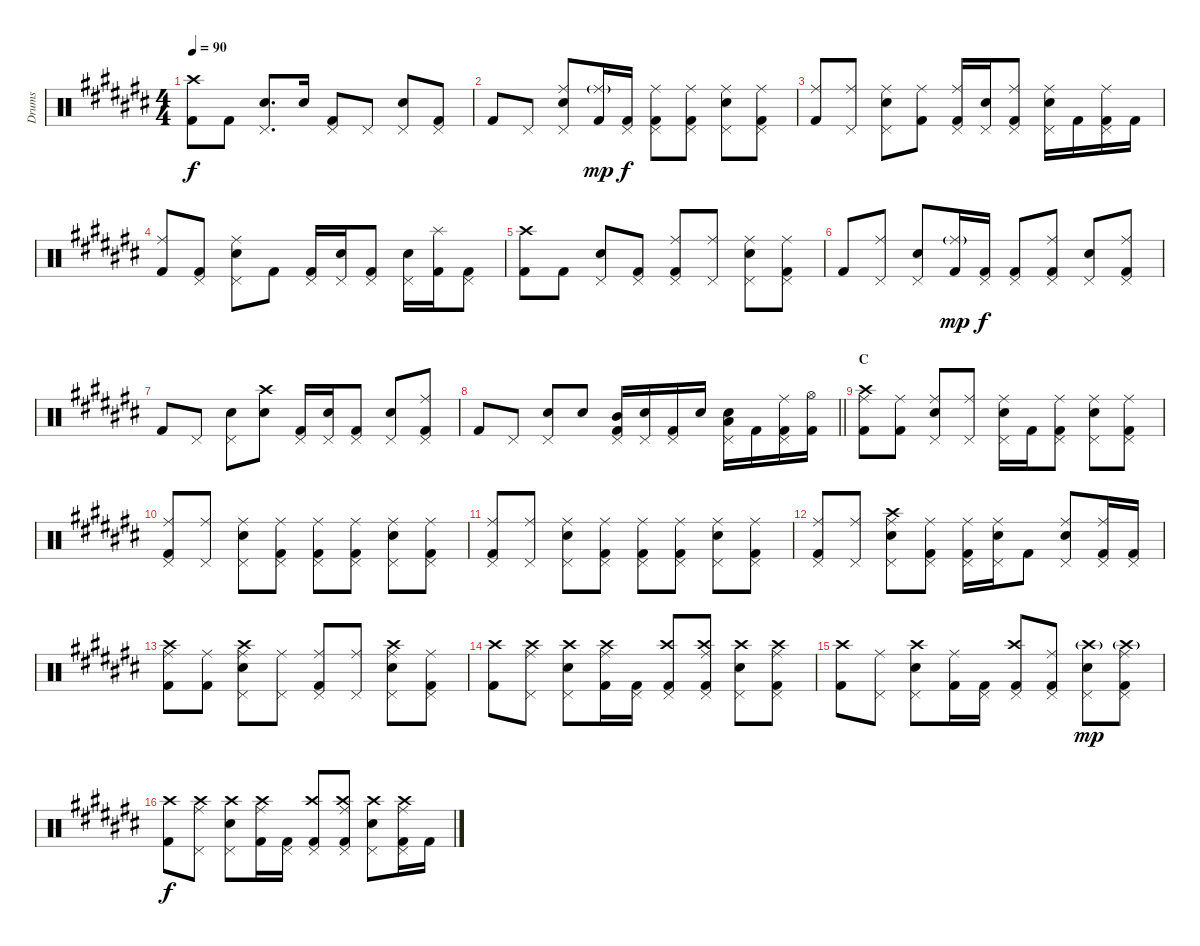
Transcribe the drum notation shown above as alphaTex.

\track ("Drums" "Drums") {instrument percussion}
\staff {score}
\articulation defaults
\ts (4 4)
\tempo 90
\clef neutral
\ks c#
("Kick (hit) 2" "Crash high (hit)").8{dy f} "Kick (hit) 2".8 ("Snare (hit) 2" "Pedal Hi-Hat (hit)").8{d} "Snare (hit) 2".16 ("Kick (hit) 2" "Pedal Hi-Hat (hit)").8 "Pedal Hi-Hat (hit)".8 ("Snare (hit) 2" "Pedal Hi-Hat (hit)").8 ("Kick (hit) 2" "Pedal Hi-Hat (hit)").8 |
"Kick (hit) 2".8 "Pedal Hi-Hat (hit)".8 ("Snare (hit) 2" "Pedal Hi-Hat (hit)" "Ride (middle)").8 ("Kick (hit) 2" "Ride (middle)"{g}).16{dy mp} ("Kick (hit) 2" "Pedal Hi-Hat (hit)").16{dy f} ("Kick (hit) 2" "Pedal Hi-Hat (hit)" "Ride (middle)").8 ("Kick (hit) 2" "Pedal Hi-Hat (hit)" "Ride (middle)").8 ("Snare (hit) 2" "Pedal Hi-Hat (hit)" "Ride (middle)").8 ("Kick (hit) 2" "Pedal Hi-Hat (hit)" "Ride (middle)").8 |
("Kick (hit) 2" "Ride (middle)").8 ("Pedal Hi-Hat (hit)" "Ride (middle)").8 ("Snare (hit) 2" "Pedal Hi-Hat (hit)" "Ride (middle)").8 ("Kick (hit) 2" "Ride (middle)").8 ("Kick (hit) 2" "Pedal Hi-Hat (hit)" "Ride (middle)").16 ("Snare (hit) 2" "Pedal Hi-Hat (hit)").16 ("Kick (hit) 2" "Pedal Hi-Hat (hit)" "Ride (middle)").8 ("Snare (hit) 2" "Pedal Hi-Hat (hit)" "Ride (middle)").16 "Kick (hit) 2".16 ("Kick (hit) 2" "Pedal Hi-Hat (hit)" "Ride (middle)").16 "Kick (hit) 2".16 |
("Kick (hit) 2" "Ride (middle)").8 ("Kick (hit) 2" "Pedal Hi-Hat (hit)").8 ("Snare (hit) 2" "Pedal Hi-Hat (hit)" "Ride (middle)").8 "Kick (hit) 2".8 ("Kick (hit) 2" "Pedal Hi-Hat (hit)").16 ("Snare (hit) 2" "Pedal Hi-Hat (hit)").16 ("Kick (hit) 2" "Pedal Hi-Hat (hit)").8 ("Snare (hit) 2" "Pedal Hi-Hat (hit)").16 ("Kick (hit) 2" "Splash (hit)").16 ("Kick (hit) 2" "Pedal Hi-Hat (hit)").8 |
("Kick (hit) 2" "Crash high (hit)").8 "Kick (hit) 2".8 ("Snare (hit) 2" "Pedal Hi-Hat (hit)").8 ("Kick (hit) 2" "Pedal Hi-Hat (hit)").8 ("Kick (hit) 2" "Pedal Hi-Hat (hit)" "Ride (middle)").8 ("Pedal Hi-Hat (hit)" "Ride (middle)").8 ("Snare (hit) 2" "Pedal Hi-Hat (hit)" "Ride (middle)").8 ("Kick (hit) 2" "Pedal Hi-Hat (hit)" "Ride (middle)").8 |
"Kick (hit) 2".8 ("Pedal Hi-Hat (hit)" "Ride (middle)").8 ("Snare (hit) 2" "Pedal Hi-Hat (hit)").8 ("Kick (hit) 2" "Ride (middle)"{g}).16{dy mp} ("Kick (hit) 2" "Pedal Hi-Hat (hit)").16{dy f} ("Kick (hit) 2" "Pedal Hi-Hat (hit)").8 ("Kick (hit) 2" "Pedal Hi-Hat (hit)" "Ride (middle)").8 ("Snare (hit) 2" "Pedal Hi-Hat (hit)").8 ("Kick (hit) 2" "Pedal Hi-Hat (hit)" "Ride (middle)").8 |
"Kick (hit) 2".8 "Pedal Hi-Hat (hit)".8 ("Snare (hit) 2" "Pedal Hi-Hat (hit)").8 ("Snare (hit) 2" "Crash high (hit)").8 ("Kick (hit) 2" "Pedal Hi-Hat (hit)").16 ("Snare (hit) 2" "Pedal Hi-Hat (hit)").16 ("Kick (hit) 2" "Pedal Hi-Hat (hit)").8 ("Snare (hit) 2" "Pedal Hi-Hat (hit)").8 ("Kick (hit) 2" "Pedal Hi-Hat (hit)" "Ride (middle)").8 |
\barLineRight lightlight "Kick (hit) 2".8 "Pedal Hi-Hat (hit)".8
("Snare (hit) 2" "Pedal Hi-Hat (hit)").8 "Snare (hit) 2".8 ("Kick (hit) 2" "Pedal Hi-Hat (hit)" "Mid Tom (hit)").16 ("Snare (hit) 2" "Pedal Hi-Hat (hit)").16 ("Kick (hit) 2" "Pedal Hi-Hat (hit)").16 "Snare (hit) 2".16 ("Snare (hit) 2" "Pedal Hi-Hat (hit)" "Low Tom (hit)").16 "Kick (hit) 2".16 ("Kick (hit) 2" "Pedal Hi-Hat (hit)" "Ride (middle)").16 ("Kick (hit) 2" "Hi-Hat (open)").16 |
\section ("" "C")
("Kick (hit) 2" "Crash high (hit)" "Ride (middle)").8 ("Kick (hit) 2" "Ride (middle)").8 ("Snare (hit) 2" "Pedal Hi-Hat (hit)" "Ride (middle)").8 ("Pedal Hi-Hat (hit)" "Ride (middle)").8 ("Snare (hit) 2" "Pedal Hi-Hat (hit)" "Ride (middle)").16 "Kick (hit) 2".16 ("Kick (hit) 2" "Pedal Hi-Hat (hit)" "Ride (middle)").8 ("Snare (hit) 2" "Pedal Hi-Hat (hit)" "Ride (middle)").8 ("Kick (hit) 2" "Pedal Hi-Hat (hit)" "Ride (middle)").8 |
("Kick (hit) 2" "Pedal Hi-Hat (hit)" "Ride (middle)").8 ("Pedal Hi-Hat (hit)" "Ride (middle)").8 ("Snare (hit) 2" "Pedal Hi-Hat (hit)" "Ride (middle)").8 ("Kick (hit) 2" "Pedal Hi-Hat (hit)" "Ride (middle)").8 ("Kick (hit) 2" "Pedal Hi-Hat (hit)" "Ride (middle)").8 ("Kick (hit) 2" "Pedal Hi-Hat (hit)" "Ride (middle)").8 ("Snare (hit) 2" "Pedal Hi-Hat (hit)" "Ride (middle)").8 ("Kick (hit) 2" "Pedal Hi-Hat (hit)" "Ride (middle)").8 |
("Kick (hit) 2" "Pedal Hi-Hat (hit)" "Ride (middle)").8 ("Pedal Hi-Hat (hit)" "Ride (middle)").8 ("Snare (hit) 2" "Pedal Hi-Hat (hit)" "Ride (middle)").8 ("Kick (hit) 2" "Pedal Hi-Hat (hit)" "Ride (middle)").8 ("Kick (hit) 2" "Pedal Hi-Hat (hit)" "Ride (middle)").8 ("Kick (hit) 2" "Pedal Hi-Hat (hit)" "Ride (middle)").8 ("Snare (hit) 2" "Pedal Hi-Hat (hit)" "Ride (middle)").8 ("Kick (hit) 2" "Pedal Hi-Hat (hit)" "Ride (middle)").8 |
("Kick (hit) 2" "Pedal Hi-Hat (hit)" "Ride (middle)").8 ("Pedal Hi-Hat (hit)" "Ride (middle)").8 ("Snare (hit) 2" "Pedal Hi-Hat (hit)" "Crash high (hit)" "Ride (middle)").8 ("Kick (hit) 2" "Pedal Hi-Hat (hit)" "Ride (middle)").8 ("Kick (hit) 2" "Pedal Hi-Hat (hit)" "Ride (middle)").16 ("Snare (hit) 2" "Pedal Hi-Hat (hit)" "Ride (middle)").16 "Kick (hit) 2".8 ("Snare (hit) 2" "Pedal Hi-Hat (hit)" "Ride (middle)").8 ("Kick (hit) 2" "Pedal Hi-Hat (hit)" "Ride (middle)").16 ("Kick (hit) 2" "Pedal Hi-Hat (hit)").16 |
("Kick (hit) 2" "Crash high (hit)" "Ride (middle)").8 ("Kick (hit) 2" "Ride (middle)").8 ("Snare (hit) 2" "Pedal Hi-Hat (hit)" "Crash high (hit)" "Ride (middle)").8 ("Pedal Hi-Hat (hit)" "Ride (middle)").8 ("Kick (hit) 2" "Pedal Hi-Hat (hit)" "Ride (middle)").8 ("Pedal Hi-Hat (hit)" "Ride (middle)").8 ("Snare (hit) 2" "Pedal Hi-Hat (hit)" "Crash high (hit)" "Ride (middle)").8 ("Kick (hit) 2" "Pedal Hi-Hat (hit)" "Ride (middle)").8 |
("Kick (hit) 2" "Crash high (hit)").8 ("Pedal Hi-Hat (hit)" "Crash high (hit)" "Ride (middle)").8 ("Snare (hit) 2" "Pedal Hi-Hat (hit)" "Crash high (hit)").8 ("Kick (hit) 2" "Crash high (hit)" "Ride (middle)").16 ("Kick (hit) 2" "Pedal Hi-Hat (hit)").16 ("Kick (hit) 2" "Pedal Hi-Hat (hit)" "Crash high (hit)").8 ("Kick (hit) 2" "Pedal Hi-Hat (hit)" "Crash high (hit)" "Ride (middle)").8 ("Snare (hit) 2" "Pedal Hi-Hat (hit)" "Crash high (hit)").8 ("Kick (hit) 2" "Pedal Hi-Hat (hit)" "Crash high (hit)" "Ride (middle)").8 |
("Kick (hit) 2" "Crash high (hit)").8 ("Pedal Hi-Hat (hit)" "Ride (middle)").8 ("Snare (hit) 2" "Pedal Hi-Hat (hit)" "Crash high (hit)").8 ("Kick (hit) 2" "Ride (middle)").16 ("Kick (hit) 2" "Pedal Hi-Hat (hit)").16 ("Kick (hit) 2" "Pedal Hi-Hat (hit)" "Crash high (hit)").8 ("Kick (hit) 2" "Pedal Hi-Hat (hit)" "Ride (middle)").8 ("Snare (hit) 2" "Pedal Hi-Hat (hit)" "Crash high (hit)"{g}).8{dy mp} ("Kick (hit) 2" "Pedal Hi-Hat (hit)" "Crash high (hit)"{g} "Ride (middle)").8 |
("Kick (hit) 2" "Crash high (hit)").8{dy f} ("Pedal Hi-Hat (hit)" "Crash high (hit)" "Ride (middle)").8 ("Snare (hit) 2" "Pedal Hi-Hat (hit)" "Crash high (hit)").8 ("Kick (hit) 2" "Crash high (hit)" "Ride (middle)").16 ("Kick (hit) 2" "Pedal Hi-Hat (hit)").16 ("Kick (hit) 2" "Pedal Hi-Hat (hit)" "Crash high (hit)").8 ("Kick (hit) 2" "Pedal Hi-Hat (hit)" "Crash high (hit)" "Ride (middle)").8 ("Snare (hit) 2" "Pedal Hi-Hat (hit)" "Crash high (hit)").8 ("Kick (hit) 2" "Pedal Hi-Hat (hit)" "Crash high (hit)" "Ride (middle)").16 "Kick (hit) 2".16
